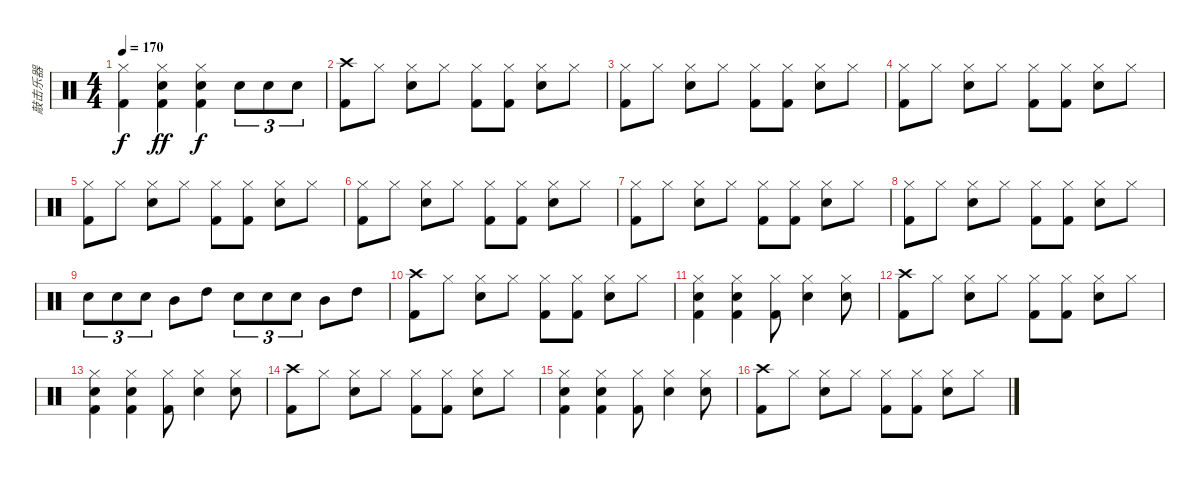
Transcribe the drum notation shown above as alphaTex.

\track ("敲击乐器" "敲击乐器") {instrument percussion}
\staff {score}
\articulation defaults
\ts (4 4)
\tempo 170
\clef neutral
\ks c
("Hi-Hat (closed)" "Kick (hit) 2").4{dy f} ("Hi-Hat (closed)" "Kick (hit) 2" "Snare (hit) 2").4{dy ff} ("Hi-Hat (closed)" "Kick (hit) 2" "Snare (hit) 2").4{dy f} "Snare (hit) 2".8{tu (3 2)} "Snare (hit) 2".8{tu (3 2)} "Snare (hit) 2".8{tu (3 2)} |
("Crash high (hit)" "Kick (hit) 2").8 "Hi-Hat (closed)".8 ("Hi-Hat (closed)" "Snare (hit) 2").8 "Hi-Hat (closed)".8 ("Hi-Hat (closed)" "Kick (hit) 2").8 ("Hi-Hat (closed)" "Kick (hit) 2").8 ("Hi-Hat (closed)" "Snare (hit) 2").8 "Hi-Hat (closed)".8 |
("Hi-Hat (closed)" "Kick (hit) 2").8 "Hi-Hat (closed)".8 ("Hi-Hat (closed)" "Snare (hit) 2").8 "Hi-Hat (closed)".8 ("Hi-Hat (closed)" "Kick (hit) 2").8 ("Hi-Hat (closed)" "Kick (hit) 2").8 ("Hi-Hat (closed)" "Snare (hit) 2").8 "Hi-Hat (closed)".8 |
("Hi-Hat (closed)" "Kick (hit) 2").8 "Hi-Hat (closed)".8 ("Hi-Hat (closed)" "Snare (hit) 2").8 "Hi-Hat (closed)".8 ("Hi-Hat (closed)" "Kick (hit) 2").8 ("Hi-Hat (closed)" "Kick (hit) 2").8 ("Hi-Hat (closed)" "Snare (hit) 2").8 "Hi-Hat (closed)".8 |
("Hi-Hat (closed)" "Kick (hit) 2").8 "Hi-Hat (closed)".8 ("Hi-Hat (closed)" "Snare (hit) 2").8 "Hi-Hat (closed)".8 ("Hi-Hat (closed)" "Kick (hit) 2").8 ("Hi-Hat (closed)" "Kick (hit) 2").8 ("Hi-Hat (closed)" "Snare (hit) 2").8 "Hi-Hat (closed)".8 |
("Hi-Hat (closed)" "Kick (hit) 2").8 "Hi-Hat (closed)".8 ("Hi-Hat (closed)" "Snare (hit) 2").8 "Hi-Hat (closed)".8 ("Hi-Hat (closed)" "Kick (hit) 2").8 ("Hi-Hat (closed)" "Kick (hit) 2").8 ("Hi-Hat (closed)" "Snare (hit) 2").8 "Hi-Hat (closed)".8 |
("Hi-Hat (closed)" "Kick (hit) 2").8 "Hi-Hat (closed)".8 ("Hi-Hat (closed)" "Snare (hit) 2").8 "Hi-Hat (closed)".8 ("Hi-Hat (closed)" "Kick (hit) 2").8 ("Hi-Hat (closed)" "Kick (hit) 2").8 ("Hi-Hat (closed)" "Snare (hit) 2").8 "Hi-Hat (closed)".8 |
("Hi-Hat (closed)" "Kick (hit) 2").8 "Hi-Hat (closed)".8 ("Hi-Hat (closed)" "Snare (hit) 2").8 "Hi-Hat (closed)".8 ("Hi-Hat (closed)" "Kick (hit) 2").8 ("Hi-Hat (closed)" "Kick (hit) 2").8 ("Hi-Hat (closed)" "Snare (hit) 2").8 "Hi-Hat (closed)".8 |
"Snare (hit) 2".8{tu (3 2)} "Snare (hit) 2".8{tu (3 2)} "Snare (hit) 2".8{tu (3 2)} "Mid Tom (hit)".8 "High Tom (hit)".8 "Snare (hit) 2".8{tu (3 2)} "Snare (hit) 2".8{tu (3 2)} "Snare (hit) 2".8{tu (3 2)} "Mid Tom (hit)".8 "High Tom (hit)".8 |
("Crash high (hit)" "Kick (hit) 2").8 "Hi-Hat (closed)".8 ("Hi-Hat (closed)" "Snare (hit) 2").8 "Hi-Hat (closed)".8 ("Hi-Hat (closed)" "Kick (hit) 2").8 ("Hi-Hat (closed)" "Kick (hit) 2").8 ("Hi-Hat (closed)" "Snare (hit) 2").8 "Hi-Hat (closed)".8 |
("Hi-Hat (closed)" "Snare (hit) 2" "Kick (hit) 2").4 ("Hi-Hat (closed)" "Snare (hit) 2" "Kick (hit) 2").4 ("Hi-Hat (closed)" "Kick (hit) 2").8 ("Hi-Hat (closed)" "Snare (hit) 2").4 ("Hi-Hat (closed)" "Snare (hit) 2").8 |
("Crash high (hit)" "Kick (hit) 2").8 "Hi-Hat (closed)".8 ("Hi-Hat (closed)" "Snare (hit) 2").8 "Hi-Hat (closed)".8 ("Hi-Hat (closed)" "Kick (hit) 2").8 ("Hi-Hat (closed)" "Kick (hit) 2").8 ("Hi-Hat (closed)" "Snare (hit) 2").8 "Hi-Hat (closed)".8 |
("Hi-Hat (closed)" "Snare (hit) 2" "Kick (hit) 2").4 ("Hi-Hat (closed)" "Snare (hit) 2" "Kick (hit) 2").4 ("Hi-Hat (closed)" "Kick (hit) 2").8 ("Hi-Hat (closed)" "Snare (hit) 2").4 ("Hi-Hat (closed)" "Snare (hit) 2").8 |
("Crash high (hit)" "Kick (hit) 2").8 "Hi-Hat (closed)".8 ("Hi-Hat (closed)" "Snare (hit) 2").8 "Hi-Hat (closed)".8 ("Hi-Hat (closed)" "Kick (hit) 2").8 ("Hi-Hat (closed)" "Kick (hit) 2").8 ("Hi-Hat (closed)" "Snare (hit) 2").8 "Hi-Hat (closed)".8 |
("Hi-Hat (closed)" "Snare (hit) 2" "Kick (hit) 2").4 ("Hi-Hat (closed)" "Snare (hit) 2" "Kick (hit) 2").4 ("Hi-Hat (closed)" "Kick (hit) 2").8 ("Hi-Hat (closed)" "Snare (hit) 2").4 ("Hi-Hat (closed)" "Snare (hit) 2").8 |
("Crash high (hit)" "Kick (hit) 2").8 "Hi-Hat (closed)".8 ("Hi-Hat (closed)" "Snare (hit) 2").8 "Hi-Hat (closed)".8 ("Hi-Hat (closed)" "Kick (hit) 2").8 ("Hi-Hat (closed)" "Kick (hit) 2").8 ("Hi-Hat (closed)" "Snare (hit) 2").8 "Hi-Hat (closed)".8
